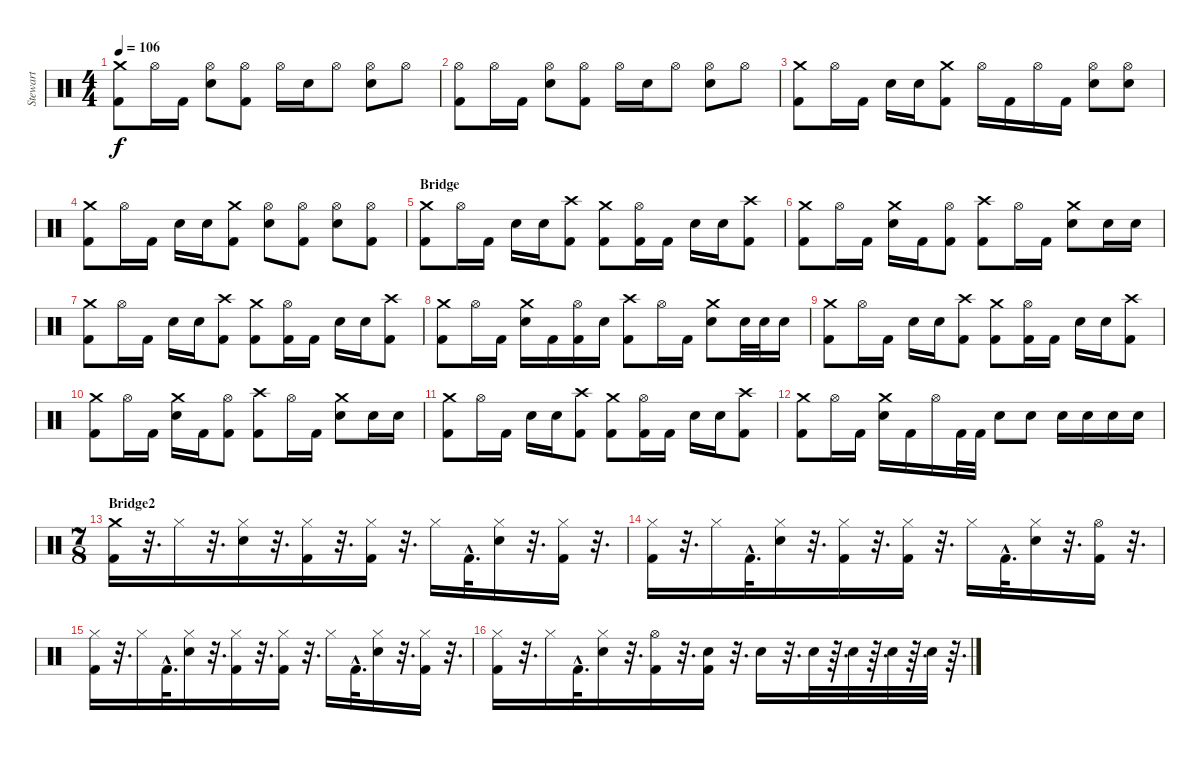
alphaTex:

\track ("Stewart" "Stewart") {instrument percussion}
\staff {score}
\articulation defaults
\ts (4 4)
\tempo 106
\clef neutral
\ks c
("Crash medium (hit)" "Kick (hit) 2").8{dy f} "Hi-Hat (open)".16 "Kick (hit) 2".16 ("Hi-Hat (open)" "Electric Snare (hit)").8 ("Hi-Hat (open)" "Kick (hit) 2").8 "Hi-Hat (open)".16 "Electric Snare (hit)".16 "Hi-Hat (open)".8 ("Hi-Hat (open)" "Electric Snare (hit)").8 "Hi-Hat (open)".8 |
("Hi-Hat (open)" "Kick (hit) 2").8 "Hi-Hat (open)".16 "Kick (hit) 2".16 ("Hi-Hat (open)" "Electric Snare (hit)").8 ("Hi-Hat (open)" "Kick (hit) 2").8 "Hi-Hat (open)".16 "Electric Snare (hit)".16 "Hi-Hat (open)".8 ("Hi-Hat (open)" "Electric Snare (hit)").8 "Hi-Hat (open)".8 |
("Crash medium (hit)" "Kick (hit) 2").8 "Hi-Hat (open)".16 "Kick (hit) 2".16 "Electric Snare (hit)".16 "Electric Snare (hit)".16 ("Crash medium (hit)" "Kick (hit) 2").8 "Hi-Hat (open)".16 "Kick (hit) 2".16 "Hi-Hat (open)".16 "Kick (hit) 2".16 ("Hi-Hat (open)" "Electric Snare (hit)").8 ("Hi-Hat (open)" "Electric Snare (hit)").8 |
("Crash medium (hit)" "Kick (hit) 2").8 "Hi-Hat (open)".16 "Kick (hit) 2".16 "Electric Snare (hit)".16 "Electric Snare (hit)".16 ("Crash medium (hit)" "Kick (hit) 2").8 ("Hi-Hat (open)" "Electric Snare (hit)").8 ("Hi-Hat (open)" "Kick (hit) 2").8 ("Hi-Hat (open)" "Electric Snare (hit)").8 ("Hi-Hat (open)" "Kick (hit) 2").8 |
\section ("" "Bridge")
("Crash medium (hit)" "Kick (hit) 2").8 "Hi-Hat (open)".16 "Kick (hit) 2".16 "Electric Snare (hit)".16 "Electric Snare (hit)".16 ("Crash high (hit)" "Kick (hit) 2").8 ("Crash medium (hit)" "Kick (hit) 2").8 ("Hi-Hat (open)" "Kick (hit) 2").16 "Kick (hit) 2".16 "Electric Snare (hit)".16 "Electric Snare (hit)".16 ("Crash high (hit)" "Kick (hit) 2").8 |
("Crash medium (hit)" "Kick (hit) 2").8 "Hi-Hat (open)".16 "Kick (hit) 2".16 ("Crash medium (hit)" "Electric Snare (hit)").16 "Kick (hit) 2".16 ("Hi-Hat (open)" "Kick (hit) 2").8 ("Crash high (hit)" "Kick (hit) 2").8 "Hi-Hat (open)".16 "Kick (hit) 2".16 ("Crash medium (hit)" "Electric Snare (hit)").8 "Electric Snare (hit)".16 "Electric Snare (hit)".16 |
("Crash medium (hit)" "Kick (hit) 2").8 "Hi-Hat (open)".16 "Kick (hit) 2".16 "Electric Snare (hit)".16 "Electric Snare (hit)".16 ("Crash high (hit)" "Kick (hit) 2").8 ("Crash medium (hit)" "Kick (hit) 2").8 ("Hi-Hat (open)" "Kick (hit) 2").16 "Kick (hit) 2".16 "Electric Snare (hit)".16 "Electric Snare (hit)".16 ("Crash high (hit)" "Kick (hit) 2").8 |
("Crash medium (hit)" "Kick (hit) 2").8 "Hi-Hat (open)".16 "Kick (hit) 2".16 ("Crash medium (hit)" "Electric Snare (hit)").16 "Kick (hit) 2".16 ("Hi-Hat (open)" "Kick (hit) 2").16 "Electric Snare (hit)".16 ("Crash high (hit)" "Kick (hit) 2").8 "Hi-Hat (open)".16 "Kick (hit) 2".16 ("Crash medium (hit)" "Electric Snare (hit)").8 "Electric Snare (hit)".32 "Electric Snare (hit)".32 "Electric Snare (hit)".16 |
("Crash medium (hit)" "Kick (hit) 2").8 "Hi-Hat (open)".16 "Kick (hit) 2".16 "Electric Snare (hit)".16 "Electric Snare (hit)".16 ("Crash high (hit)" "Kick (hit) 2").8 ("Crash medium (hit)" "Kick (hit) 2").8 ("Hi-Hat (open)" "Kick (hit) 2").16 "Kick (hit) 2".16 "Electric Snare (hit)".16 "Electric Snare (hit)".16 ("Crash high (hit)" "Kick (hit) 2").8 |
("Crash medium (hit)" "Kick (hit) 2").8 "Hi-Hat (open)".16 "Kick (hit) 2".16 ("Crash medium (hit)" "Electric Snare (hit)").16 "Kick (hit) 2".16 ("Hi-Hat (open)" "Kick (hit) 2").8 ("Crash high (hit)" "Kick (hit) 2").8 "Hi-Hat (open)".16 "Kick (hit) 2".16 ("Crash medium (hit)" "Electric Snare (hit)").8 "Electric Snare (hit)".16 "Electric Snare (hit)".16 |
("Crash medium (hit)" "Kick (hit) 2").8 "Hi-Hat (open)".16 "Kick (hit) 2".16 "Electric Snare (hit)".16 "Electric Snare (hit)".16 ("Crash high (hit)" "Kick (hit) 2").8 ("Crash medium (hit)" "Kick (hit) 2").8 ("Hi-Hat (open)" "Kick (hit) 2").16 "Kick (hit) 2".16 "Electric Snare (hit)".16 "Electric Snare (hit)".16 ("Crash high (hit)" "Kick (hit) 2").8 |
("Crash medium (hit)" "Kick (hit) 2").8 "Hi-Hat (open)".16 "Kick (hit) 2".16 ("Crash medium (hit)" "Electric Snare (hit)").16 "Kick (hit) 2".16 "Hi-Hat (open)".16 "Kick (hit) 2".32 "Kick (hit) 2".32 "Electric Snare (hit)".8 "Electric Snare (hit)".8 "Electric Snare (hit)".16 "Electric Snare (hit)".16 "Electric Snare (hit)".16 "Electric Snare (hit)".16 |
\ts (7 8)
\section ("" "Bridge2")
("Crash medium (hit)" "Kick (hit) 2").16 r.32{d} "Hi-Hat (closed)".16 r.32{d} ("Hi-Hat (closed)" "Electric Snare (hit)").16 r.32{d} ("Hi-Hat (closed)" "Kick (hit) 2").16 r.32{d} ("Hi-Hat (closed)" "Kick (hit) 2").16 r.32{d} "Hi-Hat (closed)".16 "Kick (hit) 2"{hac}.32{d} ("Hi-Hat (closed)" "Electric Snare (hit)").16 r.32{d} ("Hi-Hat (closed)" "Kick (hit) 2").16 r.32{d} |
("Hi-Hat (closed)" "Kick (hit) 2").16 r.32{d} "Hi-Hat (closed)".16 "Kick (hit) 2"{hac}.32{d} ("Hi-Hat (closed)" "Electric Snare (hit)").16 r.32{d} ("Hi-Hat (closed)" "Kick (hit) 2").16 r.32{d} ("Hi-Hat (closed)" "Kick (hit) 2").16 r.32{d} "Hi-Hat (closed)".16 "Kick (hit) 2"{hac}.32{d} ("Hi-Hat (closed)" "Electric Snare (hit)").16 r.32{d} ("Hi-Hat (open)" "Kick (hit) 2").16 r.32{d} |
("Hi-Hat (closed)" "Kick (hit) 2").16 r.32{d} "Hi-Hat (closed)".16 "Kick (hit) 2"{hac}.32{d} ("Hi-Hat (closed)" "Electric Snare (hit)").16 r.32{d} ("Hi-Hat (closed)" "Kick (hit) 2").16 r.32{d} ("Hi-Hat (closed)" "Kick (hit) 2").16 r.32{d} "Hi-Hat (closed)".16 "Kick (hit) 2"{hac}.32{d} ("Hi-Hat (closed)" "Electric Snare (hit)").16 r.32{d} ("Hi-Hat (closed)" "Kick (hit) 2").16 r.32{d} |
("Hi-Hat (closed)" "Kick (hit) 2").16 r.32{d} "Hi-Hat (closed)".16 "Kick (hit) 2"{hac}.32{d} ("Hi-Hat (closed)" "Electric Snare (hit)").16 r.32{d} ("Hi-Hat (open)" "Kick (hit) 2").16 r.32{d} ("Electric Snare (hit)" "Kick (hit) 2").16 r.32{d} "Electric Snare (hit)".16 r.32{d} "Electric Snare (hit)".32 r.64{d} "Electric Snare (hit)".32 r.64{d} "Electric Snare (hit)".32 r.64{d} "Electric Snare (hit)".32 r.64{d}
